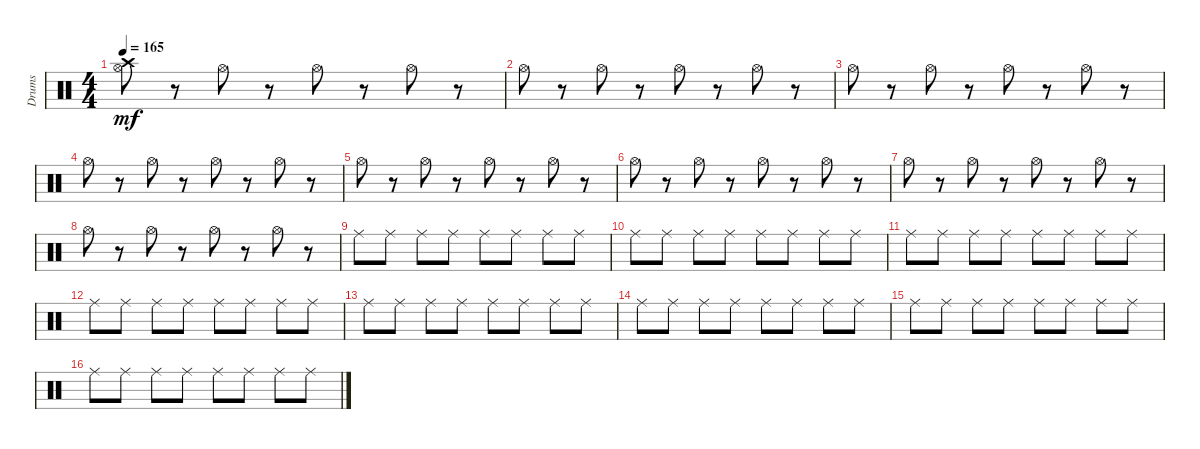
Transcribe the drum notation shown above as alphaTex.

\track ("Drums" "Drums") {instrument percussion}
\staff {score}
\articulation defaults
\ts (4 4)
\tempo 165
\clef neutral
\ks c
("Crash high (hit)" "Hi-Hat (open)").8{dy mf} r.8 "Hi-Hat (open)".8 r.8 "Hi-Hat (open)".8 r.8 "Hi-Hat (open)".8 r.8 |
"Hi-Hat (open)".8 r.8 "Hi-Hat (open)".8 r.8 "Hi-Hat (open)".8 r.8 "Hi-Hat (open)".8 r.8 |
"Hi-Hat (open)".8 r.8 "Hi-Hat (open)".8 r.8 "Hi-Hat (open)".8 r.8 "Hi-Hat (open)".8 r.8 |
"Hi-Hat (open)".8 r.8 "Hi-Hat (open)".8 r.8 "Hi-Hat (open)".8 r.8 "Hi-Hat (open)".8 r.8 |
"Hi-Hat (open)".8 r.8 "Hi-Hat (open)".8 r.8 "Hi-Hat (open)".8 r.8 "Hi-Hat (open)".8 r.8 |
"Hi-Hat (open)".8 r.8 "Hi-Hat (open)".8 r.8 "Hi-Hat (open)".8 r.8 "Hi-Hat (open)".8 r.8 |
"Hi-Hat (open)".8 r.8 "Hi-Hat (open)".8 r.8 "Hi-Hat (open)".8 r.8 "Hi-Hat (open)".8 r.8 |
"Hi-Hat (open)".8 r.8 "Hi-Hat (open)".8 r.8 "Hi-Hat (open)".8 r.8 "Hi-Hat (open)".8 r.8 |
"Ride (middle)".8 "Ride (middle)".8 "Ride (middle)".8 "Ride (middle)".8 "Ride (middle)".8 "Ride (middle)".8 "Ride (middle)".8 "Ride (middle)".8 |
"Ride (middle)".8 "Ride (middle)".8 "Ride (middle)".8 "Ride (middle)".8 "Ride (middle)".8 "Ride (middle)".8 "Ride (middle)".8 "Ride (middle)".8 |
"Ride (middle)".8 "Ride (middle)".8 "Ride (middle)".8 "Ride (middle)".8 "Ride (middle)".8 "Ride (middle)".8 "Ride (middle)".8 "Ride (middle)".8 |
"Ride (middle)".8 "Ride (middle)".8 "Ride (middle)".8 "Ride (middle)".8 "Ride (middle)".8 "Ride (middle)".8 "Ride (middle)".8 "Ride (middle)".8 |
"Ride (middle)".8 "Ride (middle)".8 "Ride (middle)".8 "Ride (middle)".8 "Ride (middle)".8 "Ride (middle)".8 "Ride (middle)".8 "Ride (middle)".8 |
"Ride (middle)".8 "Ride (middle)".8 "Ride (middle)".8 "Ride (middle)".8 "Ride (middle)".8 "Ride (middle)".8 "Ride (middle)".8 "Ride (middle)".8 |
"Ride (middle)".8 "Ride (middle)".8 "Ride (middle)".8 "Ride (middle)".8 "Ride (middle)".8 "Ride (middle)".8 "Ride (middle)".8 "Ride (middle)".8 |
"Ride (middle)".8 "Ride (middle)".8 "Ride (middle)".8 "Ride (middle)".8 "Ride (middle)".8 "Ride (middle)".8 "Ride (middle)".8 "Ride (middle)".8
